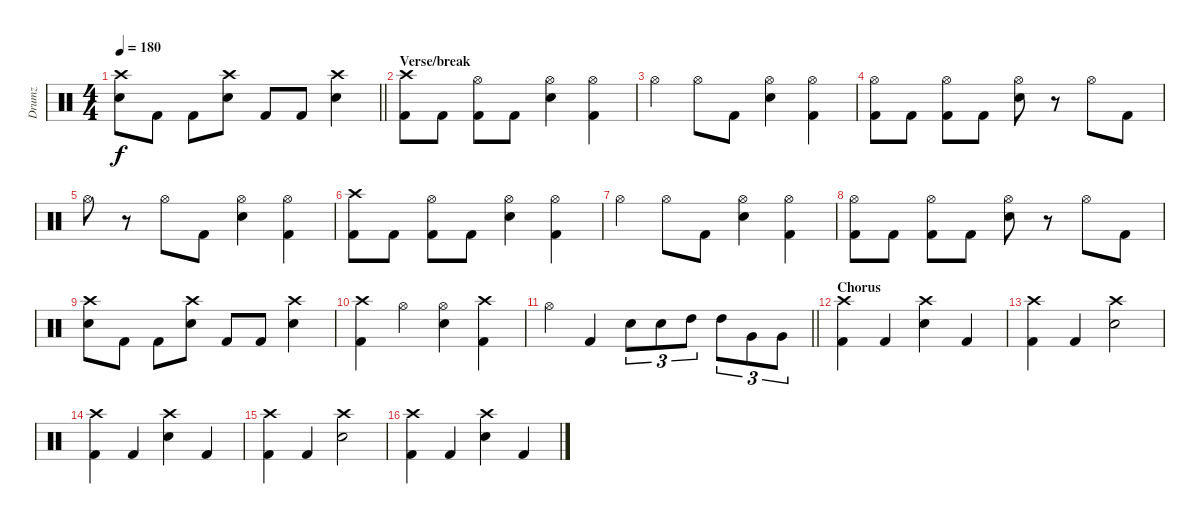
\track ("Drumz" "Drumz") {instrument percussion}
\staff {score}
\articulation defaults
\ts (4 4)
\tempo 180
\clef neutral
\barLineRight lightlight
\ks c
("Crash high (hit)" "Snare (hit) 2").8{dy f} "Kick (hit) 2".8 "Kick (hit) 2".8 ("Crash high (hit)" "Snare (hit) 2").8 "Kick (hit) 2".8 "Kick (hit) 2".8 ("Crash high (hit)" "Snare (hit) 2").4 |
\section ("" "Verse/break")
("Kick (hit) 2" "Crash high (hit)").8 "Kick (hit) 2".8 ("Kick (hit) 2" "Hi-Hat (open)").8 "Kick (hit) 2".8 ("Hi-Hat (open)" "Snare (hit) 2").4 ("Kick (hit) 2" "Hi-Hat (open)").4 |
"Hi-Hat (open)".4 "Hi-Hat (open)".8 "Kick (hit) 2".8 ("Hi-Hat (open)" "Snare (hit) 2").4 ("Kick (hit) 2" "Hi-Hat (open)").4 |
("Kick (hit) 2" "Hi-Hat (open)").8 "Kick (hit) 2".8 ("Kick (hit) 2" "Hi-Hat (open)").8 "Kick (hit) 2".8 ("Hi-Hat (open)" "Snare (hit) 2").8 r.8 "Hi-Hat (open)".8 "Kick (hit) 2".8 |
"Hi-Hat (open)".8 r.8 "Hi-Hat (open)".8 "Kick (hit) 2".8 ("Hi-Hat (open)" "Snare (hit) 2").4 ("Kick (hit) 2" "Hi-Hat (open)").4 |
("Kick (hit) 2" "Crash high (hit)").8 "Kick (hit) 2".8 ("Kick (hit) 2" "Hi-Hat (open)").8 "Kick (hit) 2".8 ("Hi-Hat (open)" "Snare (hit) 2").4 ("Kick (hit) 2" "Hi-Hat (open)").4 |
"Hi-Hat (open)".4 "Hi-Hat (open)".8 "Kick (hit) 2".8 ("Hi-Hat (open)" "Snare (hit) 2").4 ("Kick (hit) 2" "Hi-Hat (open)").4 |
("Kick (hit) 2" "Hi-Hat (open)").8 "Kick (hit) 2".8 ("Kick (hit) 2" "Hi-Hat (open)").8 "Kick (hit) 2".8 ("Hi-Hat (open)" "Snare (hit) 2").8 r.8 "Hi-Hat (open)".8 "Kick (hit) 2".8 |
("Crash high (hit)" "Snare (hit) 2").8 "Kick (hit) 2".8 "Kick (hit) 2".8 ("Crash high (hit)" "Snare (hit) 2").8 "Kick (hit) 2".8 "Kick (hit) 2".8 ("Crash high (hit)" "Snare (hit) 2").4 |
("Kick (hit) 2" "Crash high (hit)").4 "Hi-Hat (open)".4 ("Hi-Hat (open)" "Snare (hit) 2").4 ("Kick (hit) 2" "Crash high (hit)").4 |
\barLineRight lightlight "Hi-Hat (open)".4 "Kick (hit) 2".4 "Snare (hit) 2".8{tu (3 2)} "Snare (hit) 2".8{tu (3 2)} "High Tom (hit)".8{tu (3 2)} "High Tom (hit)".8{tu (3 2)} "Very Low Tom (hit)".8{tu (3 2)} "Very Low Tom (hit)".8{tu (3 2)}
|
\section ("" "Chorus")
("Kick (hit) 2" "Crash high (hit)").4 "Kick (hit) 2".4 ("Snare (hit) 2" "Crash high (hit)").4 "Kick (hit) 2".4 |
("Crash high (hit)" "Kick (hit) 2").4 "Kick (hit) 2".4 ("Crash high (hit)" "Snare (hit) 2").2 |
("Kick (hit) 2" "Crash high (hit)").4 "Kick (hit) 2".4 ("Snare (hit) 2" "Crash high (hit)").4 "Kick (hit) 2".4 |
("Crash high (hit)" "Kick (hit) 2").4 "Kick (hit) 2".4 ("Crash high (hit)" "Snare (hit) 2").2 |
("Kick (hit) 2" "Crash high (hit)").4 "Kick (hit) 2".4 ("Snare (hit) 2" "Crash high (hit)").4 "Kick (hit) 2".4
